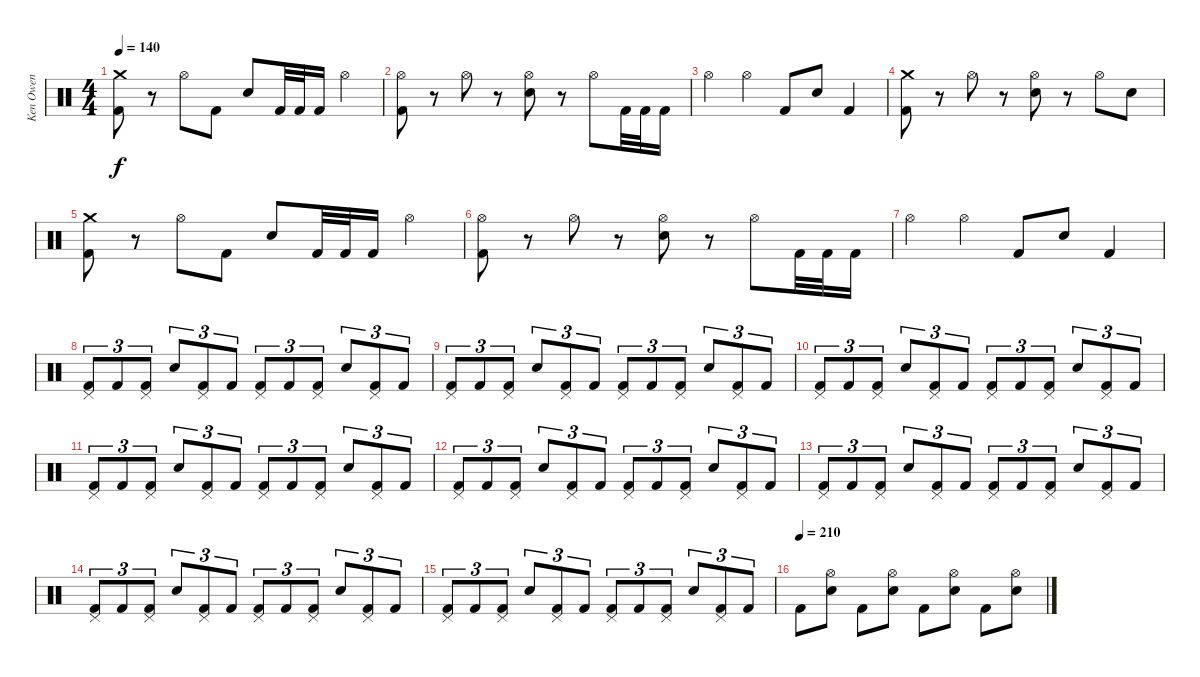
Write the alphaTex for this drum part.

\track ("Ken Owen" "Ken Owen") {instrument percussion}
\staff {score}
\articulation defaults
\ts (4 4)
\tempo 140
\clef neutral
\ks c
("Crash medium (hit)" "Kick (hit) 2").8{dy f} r.8 "Hi-Hat (open)".8 "Kick (hit) 2".8 "Electric Snare (hit)".8 "Kick (hit) 2".32 "Kick (hit) 2".32 "Kick (hit) 2".16 "Hi-Hat (open)".4 |
("Hi-Hat (open)" "Kick (hit) 2").8 r.8 "Hi-Hat (open)".8 r.8 ("Hi-Hat (open)" "Electric Snare (hit)").8 r.8 "Hi-Hat (open)".8 "Kick (hit) 2".32 "Kick (hit) 2".32 "Kick (hit) 2".16 |
"Hi-Hat (open)".4 "Hi-Hat (open)".4 "Kick (hit) 2".8 "Electric Snare (hit)".8 "Kick (hit) 2".4 |
("Crash medium (hit)" "Kick (hit) 2").8 r.8 "Hi-Hat (open)".8 r.8 ("Hi-Hat (open)" "Electric Snare (hit)").8 r.8 "Hi-Hat (open)".8 "Electric Snare (hit)".8 |
("Crash medium (hit)" "Kick (hit) 2").8 r.8 "Hi-Hat (open)".8 "Kick (hit) 2".8 "Electric Snare (hit)".8 "Kick (hit) 2".32 "Kick (hit) 2".32 "Kick (hit) 2".16 "Hi-Hat (open)".4 |
("Hi-Hat (open)" "Kick (hit) 2").8 r.8 "Hi-Hat (open)".8 r.8 ("Hi-Hat (open)" "Electric Snare (hit)").8 r.8 "Hi-Hat (open)".8 "Kick (hit) 2".32 "Kick (hit) 2".32 "Kick (hit) 2".16 |
"Hi-Hat (open)".4 "Hi-Hat (open)".4 "Kick (hit) 2".8 "Electric Snare (hit)".8 "Kick (hit) 2".4 |
("Pedal Hi-Hat (hit)" "Kick (hit) 2").8{tu (3 2)} "Kick (hit) 2".8{tu (3 2)} ("Pedal Hi-Hat (hit)" "Kick (hit) 2").8{tu (3 2)} "Electric Snare (hit)".8{tu (3 2)} ("Pedal Hi-Hat (hit)" "Kick (hit) 2").8{tu (3 2)} "Kick (hit) 2".8{tu (3 2)} ("Pedal Hi-Hat (hit)" "Kick (hit) 2").8{tu (3 2)} "Kick (hit) 2".8{tu (3 2)} ("Pedal Hi-Hat (hit)" "Kick (hit) 2").8{tu (3 2)} "Electric Snare (hit)".8{tu (3 2)} ("Pedal Hi-Hat (hit)" "Kick (hit) 2").8{tu (3 2)} "Kick (hit) 2".8{tu (3 2)} |
("Pedal Hi-Hat (hit)" "Kick (hit) 2").8{tu (3 2)} "Kick (hit) 2".8{tu (3 2)} ("Pedal Hi-Hat (hit)" "Kick (hit) 2").8{tu (3 2)} "Electric Snare (hit)".8{tu (3 2)} ("Pedal Hi-Hat (hit)" "Kick (hit) 2").8{tu (3 2)} "Kick (hit) 2".8{tu (3 2)} ("Pedal Hi-Hat (hit)" "Kick (hit) 2").8{tu (3 2)} "Kick (hit) 2".8{tu (3 2)} ("Pedal Hi-Hat (hit)" "Kick (hit) 2").8{tu (3 2)} "Electric Snare (hit)".8{tu (3 2)} ("Pedal Hi-Hat (hit)" "Kick (hit) 2").8{tu (3 2)} "Kick (hit) 2".8{tu (3 2)} |
("Pedal Hi-Hat (hit)" "Kick (hit) 2").8{tu (3 2)} "Kick (hit) 2".8{tu (3 2)} ("Pedal Hi-Hat (hit)" "Kick (hit) 2").8{tu (3 2)} "Electric Snare (hit)".8{tu (3 2)} ("Pedal Hi-Hat (hit)" "Kick (hit) 2").8{tu (3 2)} "Kick (hit) 2".8{tu (3 2)} ("Pedal Hi-Hat (hit)" "Kick (hit) 2").8{tu (3 2)} "Kick (hit) 2".8{tu (3 2)} ("Pedal Hi-Hat (hit)" "Kick (hit) 2").8{tu (3 2)} "Electric Snare (hit)".8{tu (3 2)} ("Pedal Hi-Hat (hit)" "Kick (hit) 2").8{tu (3 2)} "Kick (hit) 2".8{tu (3 2)} |
("Pedal Hi-Hat (hit)" "Kick (hit) 2").8{tu (3 2)} "Kick (hit) 2".8{tu (3 2)} ("Pedal Hi-Hat (hit)" "Kick (hit) 2").8{tu (3 2)} "Electric Snare (hit)".8{tu (3 2)} ("Pedal Hi-Hat (hit)" "Kick (hit) 2").8{tu (3 2)} "Kick (hit) 2".8{tu (3 2)} ("Pedal Hi-Hat (hit)" "Kick (hit) 2").8{tu (3 2)} "Kick (hit) 2".8{tu (3 2)} ("Pedal Hi-Hat (hit)" "Kick (hit) 2").8{tu (3 2)} "Electric Snare (hit)".8{tu (3 2)} ("Pedal Hi-Hat (hit)" "Kick (hit) 2").8{tu (3 2)} "Kick (hit) 2".8{tu (3 2)} |
("Pedal Hi-Hat (hit)" "Kick (hit) 2").8{tu (3 2)} "Kick (hit) 2".8{tu (3 2)} ("Pedal Hi-Hat (hit)" "Kick (hit) 2").8{tu (3 2)} "Electric Snare (hit)".8{tu (3 2)} ("Pedal Hi-Hat (hit)" "Kick (hit) 2").8{tu (3 2)} "Kick (hit) 2".8{tu (3 2)} ("Pedal Hi-Hat (hit)" "Kick (hit) 2").8{tu (3 2)} "Kick (hit) 2".8{tu (3 2)} ("Pedal Hi-Hat (hit)" "Kick (hit) 2").8{tu (3 2)} "Electric Snare (hit)".8{tu (3 2)} ("Pedal Hi-Hat (hit)" "Kick (hit) 2").8{tu (3 2)} "Kick (hit) 2".8{tu (3 2)} |
("Pedal Hi-Hat (hit)" "Kick (hit) 2").8{tu (3 2)} "Kick (hit) 2".8{tu (3 2)} ("Pedal Hi-Hat (hit)" "Kick (hit) 2").8{tu (3 2)} "Electric Snare (hit)".8{tu (3 2)} ("Pedal Hi-Hat (hit)" "Kick (hit) 2").8{tu (3 2)} "Kick (hit) 2".8{tu (3 2)} ("Pedal Hi-Hat (hit)" "Kick (hit) 2").8{tu (3 2)} "Kick (hit) 2".8{tu (3 2)} ("Pedal Hi-Hat (hit)" "Kick (hit) 2").8{tu (3 2)} "Electric Snare (hit)".8{tu (3 2)} ("Pedal Hi-Hat (hit)" "Kick (hit) 2").8{tu (3 2)} "Kick (hit) 2".8{tu (3 2)} |
("Pedal Hi-Hat (hit)" "Kick (hit) 2").8{tu (3 2)} "Kick (hit) 2".8{tu (3 2)} ("Pedal Hi-Hat (hit)" "Kick (hit) 2").8{tu (3 2)} "Electric Snare (hit)".8{tu (3 2)} ("Pedal Hi-Hat (hit)" "Kick (hit) 2").8{tu (3 2)} "Kick (hit) 2".8{tu (3 2)} ("Pedal Hi-Hat (hit)" "Kick (hit) 2").8{tu (3 2)} "Kick (hit) 2".8{tu (3 2)} ("Pedal Hi-Hat (hit)" "Kick (hit) 2").8{tu (3 2)} "Electric Snare (hit)".8{tu (3 2)} ("Pedal Hi-Hat (hit)" "Kick (hit) 2").8{tu (3 2)} "Kick (hit) 2".8{tu (3 2)} |
("Pedal Hi-Hat (hit)" "Kick (hit) 2").8{tu (3 2)} "Kick (hit) 2".8{tu (3 2)} ("Pedal Hi-Hat (hit)" "Kick (hit) 2").8{tu (3 2)} "Electric Snare (hit)".8{tu (3 2)} ("Pedal Hi-Hat (hit)" "Kick (hit) 2").8{tu (3 2)} "Kick (hit) 2".8{tu (3 2)} ("Pedal Hi-Hat (hit)" "Kick (hit) 2").8{tu (3 2)} "Kick (hit) 2".8{tu (3 2)} ("Pedal Hi-Hat (hit)" "Kick (hit) 2").8{tu (3 2)} "Electric Snare (hit)".8{tu (3 2)} ("Pedal Hi-Hat (hit)" "Kick (hit) 2").8{tu (3 2)} "Kick (hit) 2".8{tu (3 2)} |
\tempo (210)
"Kick (hit) 2".8 ("Hi-Hat (open)" "Electric Snare (hit)").8 "Kick (hit) 2".8 ("Hi-Hat (open)" "Electric Snare (hit)").8 "Kick (hit) 2".8 ("Hi-Hat (open)" "Electric Snare (hit)").8 "Kick (hit) 2".8 ("Hi-Hat (open)" "Electric Snare (hit)").8
